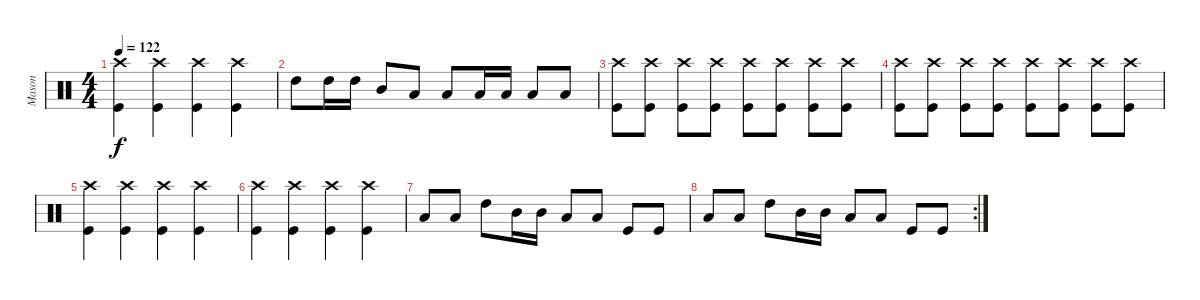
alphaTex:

\track ("Mason" "Mason") {instrument percussion}
\staff {score}
\articulation defaults
\ts (4 4)
\tempo 122
\clef neutral
\ks c
("Kick (hit)" "Crash high (hit)").4{dy f} ("Kick (hit)" "Crash high (hit)").4 ("Kick (hit)" "Crash high (hit)").4 ("Kick (hit)" "Crash high (hit)").4 |
"High Tom (hit)".8 "High Tom (hit)".16 "High Tom (hit)".16 "Mid Tom (hit)".8 "Low Floor Tom (hit)".8 "Low Floor Tom (hit)".8 "Low Floor Tom (hit)".16 "Low Floor Tom (hit)".16 "Low Tom (hit)".8 "Low Tom (hit)".8 |
("Kick (hit)" "Crash high (hit)").8 ("Kick (hit)" "Crash high (hit)").8 ("Kick (hit)" "Crash high (hit)").8 ("Kick (hit)" "Crash high (hit)").8 ("Kick (hit)" "Crash high (hit)").8 ("Kick (hit)" "Crash high (hit)").8 ("Kick (hit)" "Crash high (hit)").8 ("Kick (hit)" "Crash high (hit)").8 |
("Kick (hit)" "Crash high (hit)").8 ("Kick (hit)" "Crash high (hit)").8 ("Kick (hit)" "Crash high (hit)").8 ("Kick (hit)" "Crash high (hit)").8 ("Kick (hit)" "Crash high (hit)").8 ("Kick (hit)" "Crash high (hit)").8 ("Kick (hit)" "Crash high (hit)").8 ("Kick (hit)" "Crash high (hit)").8 |
("Kick (hit)" "Crash high (hit)").4 ("Kick (hit)" "Crash high (hit)").4 ("Kick (hit)" "Crash high (hit)").4 ("Kick (hit)" "Crash high (hit)").4 |
("Kick (hit)" "Crash high (hit)").4 ("Kick (hit)" "Crash high (hit)").4 ("Kick (hit)" "Crash high (hit)").4 ("Kick (hit)" "Crash high (hit)").4 |
"Low Tom (hit)".8 "Low Tom (hit)".8 "High Tom (hit)".8 "Mid Tom (hit)".16 "Mid Tom (hit)".16 "Low Floor Tom (hit)".8 "Low Floor Tom (hit)".8 "Kick (hit)".8 "Kick (hit)".8 |
\rc 2 "Low Tom (hit)".8 "Low Tom (hit)".8 "High Tom (hit)".8 "Mid Tom (hit)".16 "Mid Tom (hit)".16 "Low Floor Tom (hit)".8 "Low Floor Tom (hit)".8 "Kick (hit)".8 "Kick (hit)".8
